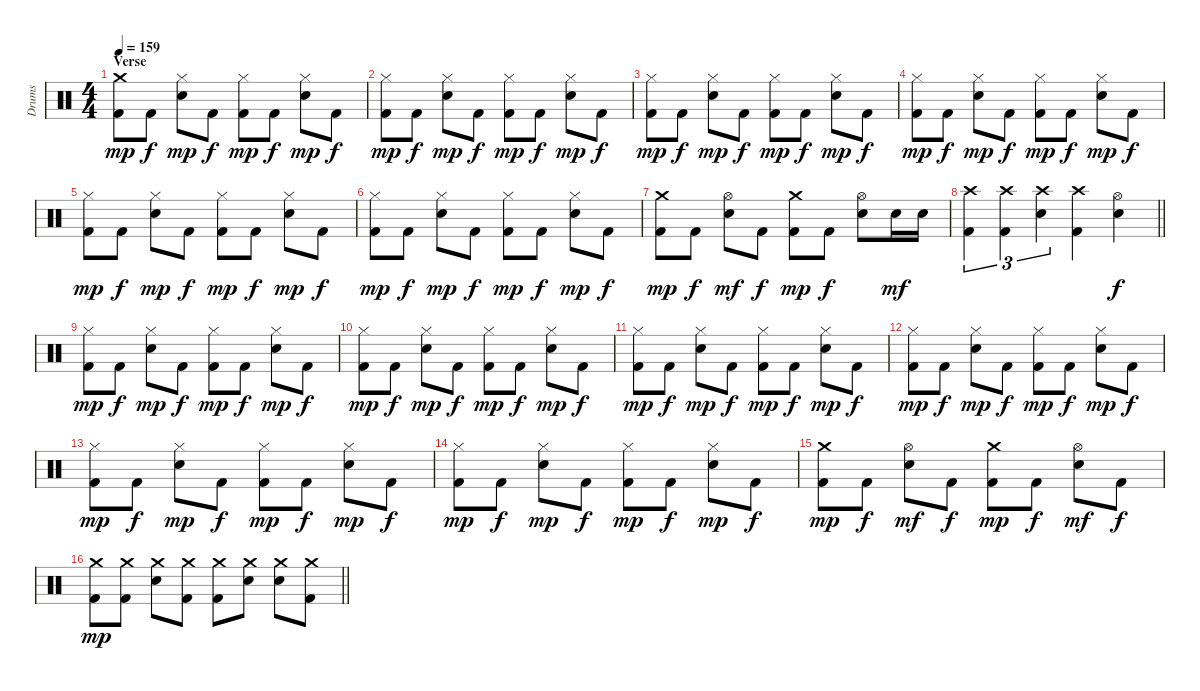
\track ("Drums" "Drums") {instrument percussion}
\staff {score}
\articulation defaults
\ts (4 4)
\section ("" "Verse")
\tempo 159
\clef neutral
\ks c
("Crash medium (hit)" "Kick (hit) 2").8{dy mp} "Kick (hit) 2".8{dy f} ("Hi-Hat (closed)" "Electric Snare (hit)").8{dy mp} "Kick (hit) 2".8{dy f} ("Hi-Hat (closed)" "Kick (hit) 2").8{dy mp} "Kick (hit) 2".8{dy f} ("Hi-Hat (closed)" "Electric Snare (hit)").8{dy mp} "Kick (hit) 2".8{dy f} |
("Hi-Hat (closed)" "Kick (hit) 2").8{dy mp} "Kick (hit) 2".8{dy f} ("Hi-Hat (closed)" "Electric Snare (hit)").8{dy mp} "Kick (hit) 2".8{dy f} ("Hi-Hat (closed)" "Kick (hit) 2").8{dy mp} "Kick (hit) 2".8{dy f} ("Hi-Hat (closed)" "Electric Snare (hit)").8{dy mp} "Kick (hit) 2".8{dy f} |
("Hi-Hat (closed)" "Kick (hit) 2").8{dy mp} "Kick (hit) 2".8{dy f} ("Hi-Hat (closed)" "Electric Snare (hit)").8{dy mp} "Kick (hit) 2".8{dy f} ("Hi-Hat (closed)" "Kick (hit) 2").8{dy mp} "Kick (hit) 2".8{dy f} ("Hi-Hat (closed)" "Electric Snare (hit)").8{dy mp} "Kick (hit) 2".8{dy f} |
("Hi-Hat (closed)" "Kick (hit) 2").8{dy mp} "Kick (hit) 2".8{dy f} ("Hi-Hat (closed)" "Electric Snare (hit)").8{dy mp} "Kick (hit) 2".8{dy f} ("Hi-Hat (closed)" "Kick (hit) 2").8{dy mp} "Kick (hit) 2".8{dy f} ("Hi-Hat (closed)" "Electric Snare (hit)").8{dy mp} "Kick (hit) 2".8{dy f} |
("Hi-Hat (closed)" "Kick (hit) 2").8{dy mp} "Kick (hit) 2".8{dy f} ("Hi-Hat (closed)" "Electric Snare (hit)").8{dy mp} "Kick (hit) 2".8{dy f} ("Hi-Hat (closed)" "Kick (hit) 2").8{dy mp} "Kick (hit) 2".8{dy f} ("Hi-Hat (closed)" "Electric Snare (hit)").8{dy mp} "Kick (hit) 2".8{dy f} |
("Hi-Hat (closed)" "Kick (hit) 2").8{dy mp} "Kick (hit) 2".8{dy f} ("Hi-Hat (closed)" "Electric Snare (hit)").8{dy mp} "Kick (hit) 2".8{dy f} ("Hi-Hat (closed)" "Kick (hit) 2").8{dy mp} "Kick (hit) 2".8{dy f} ("Hi-Hat (closed)" "Electric Snare (hit)").8{dy mp} "Kick (hit) 2".8{dy f} |
("Crash medium (hit)" "Kick (hit) 2").8{dy mp} "Kick (hit) 2".8{dy f} ("Hi-Hat (open)" "Electric Snare (hit)").8{dy mf} "Kick (hit) 2".8{dy f} ("Crash medium (hit)" "Kick (hit) 2").8{dy mp} "Kick (hit) 2".8{dy f} ("Hi-Hat (open)" "Electric Snare (hit)").8 "Electric Snare (hit)".16{dy mf} "Electric Snare (hit)".16 |
\barLineRight lightlight
("Crash high (hit)" "Kick (hit) 2").4{tu (3 2)} ("Crash high (hit)" "Kick (hit) 2").4{tu (3 2)} ("Crash high (hit)" "Electric Snare (hit)").4{tu (3 2)} ("Crash high (hit)" "Kick (hit) 2").4 ("Hi-Hat (open)" "Electric Snare (hit)").4{dy f} |
("Hi-Hat (closed)" "Kick (hit) 2").8{dy mp} "Kick (hit) 2".8{dy f} ("Hi-Hat (closed)" "Electric Snare (hit)").8{dy mp} "Kick (hit) 2".8{dy f} ("Hi-Hat (closed)" "Kick (hit) 2").8{dy mp} "Kick (hit) 2".8{dy f} ("Hi-Hat (closed)" "Electric Snare (hit)").8{dy mp} "Kick (hit) 2".8{dy f} |
("Hi-Hat (closed)" "Kick (hit) 2").8{dy mp} "Kick (hit) 2".8{dy f} ("Hi-Hat (closed)" "Electric Snare (hit)").8{dy mp} "Kick (hit) 2".8{dy f} ("Hi-Hat (closed)" "Kick (hit) 2").8{dy mp} "Kick (hit) 2".8{dy f} ("Hi-Hat (closed)" "Electric Snare (hit)").8{dy mp} "Kick (hit) 2".8{dy f} |
("Hi-Hat (closed)" "Kick (hit) 2").8{dy mp} "Kick (hit) 2".8{dy f} ("Hi-Hat (closed)" "Electric Snare (hit)").8{dy mp} "Kick (hit) 2".8{dy f} ("Hi-Hat (closed)" "Kick (hit) 2").8{dy mp} "Kick (hit) 2".8{dy f} ("Hi-Hat (closed)" "Electric Snare (hit)").8{dy mp} "Kick (hit) 2".8{dy f} |
("Hi-Hat (closed)" "Kick (hit) 2").8{dy mp} "Kick (hit) 2".8{dy f} ("Hi-Hat (closed)" "Electric Snare (hit)").8{dy mp} "Kick (hit) 2".8{dy f} ("Hi-Hat (closed)" "Kick (hit) 2").8{dy mp} "Kick (hit) 2".8{dy f} ("Hi-Hat (closed)" "Electric Snare (hit)").8{dy mp} "Kick (hit) 2".8{dy f} |
("Hi-Hat (closed)" "Kick (hit) 2").8{dy mp} "Kick (hit) 2".8{dy f} ("Hi-Hat (closed)" "Electric Snare (hit)").8{dy mp} "Kick (hit) 2".8{dy f} ("Hi-Hat (closed)" "Kick (hit) 2").8{dy mp} "Kick (hit) 2".8{dy f} ("Hi-Hat (closed)" "Electric Snare (hit)").8{dy mp} "Kick (hit) 2".8{dy f} |
("Hi-Hat (closed)" "Kick (hit) 2").8{dy mp} "Kick (hit) 2".8{dy f} ("Hi-Hat (closed)" "Electric Snare (hit)").8{dy mp} "Kick (hit) 2".8{dy f} ("Hi-Hat (closed)" "Kick (hit) 2").8{dy mp} "Kick (hit) 2".8{dy f} ("Hi-Hat (closed)" "Electric Snare (hit)").8{dy mp} "Kick (hit) 2".8{dy f} |
("Crash medium (hit)" "Kick (hit) 2").8{dy mp} "Kick (hit) 2".8{dy f} ("Hi-Hat (open)" "Electric Snare (hit)").8{dy mf} "Kick (hit) 2".8{dy f} ("Crash medium (hit)" "Kick (hit) 2").8{dy mp} "Kick (hit) 2".8{dy f} ("Hi-Hat (open)" "Electric Snare (hit)").8{dy mf} "Kick (hit) 2".8{dy f} |
\barLineRight lightlight
("Crash medium (hit)" "Kick (hit) 2").8{dy mp} ("Crash medium (hit)" "Kick (hit) 2").8 ("Crash medium (hit)" "Electric Snare (hit)").8 ("Crash medium (hit)" "Kick (hit) 2").8 ("Crash medium (hit)" "Kick (hit) 2").8 ("Crash medium (hit)" "Electric Snare (hit)").8 ("Crash medium (hit)" "Electric Snare (hit)").8 ("Crash medium (hit)" "Kick (hit) 2").8
